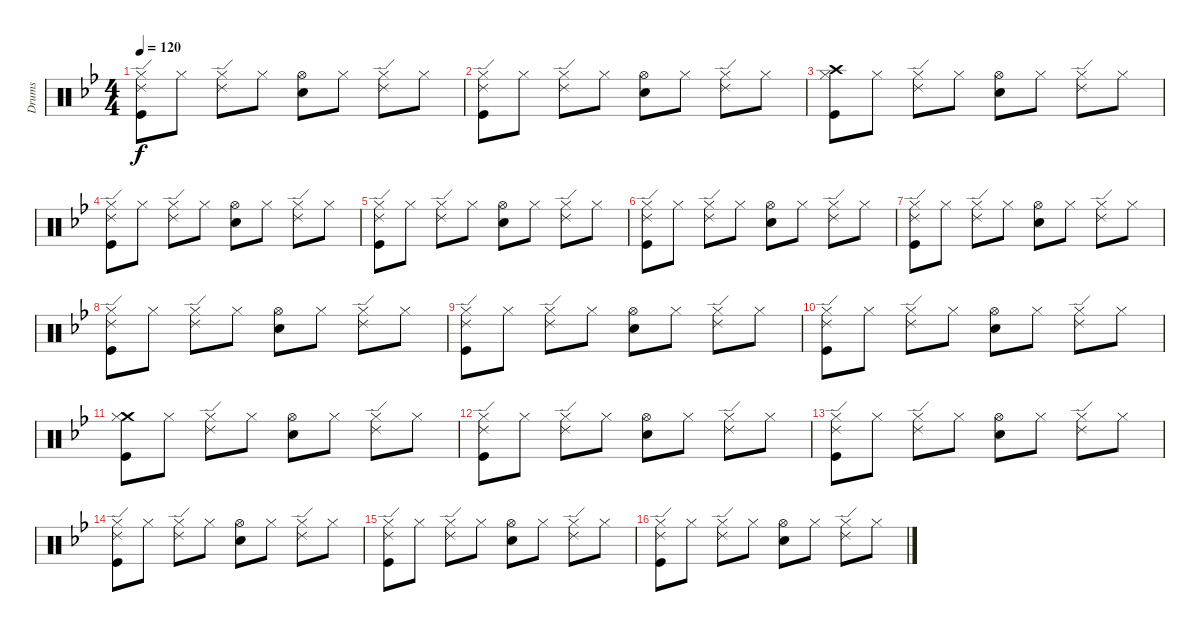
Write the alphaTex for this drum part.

\track ("Drums" "Drums") {instrument percussion}
\staff {score}
\articulation defaults
\ts (4 4)
\tempo 120
\clef neutral
\ks gminor
("Hi-Hat (closed)" "Ride (edge) 2" "Kick (hit)").8{dy f} "Hi-Hat (closed)".8 ("Hi-Hat (closed)" "Ride (edge) 2").8 "Hi-Hat (closed)".8 ("Hi-Hat (open)" "Electric Snare (hit)").8 "Hi-Hat (closed)".8 ("Hi-Hat (closed)" "Ride (edge) 2").8 "Hi-Hat (closed)".8 |
("Hi-Hat (closed)" "Ride (edge) 2" "Kick (hit)").8 "Hi-Hat (closed)".8 ("Hi-Hat (closed)" "Ride (edge) 2").8 "Hi-Hat (closed)".8 ("Hi-Hat (open)" "Electric Snare (hit)").8 "Hi-Hat (closed)".8 ("Hi-Hat (closed)" "Ride (edge) 2").8 "Hi-Hat (closed)".8 |
("Crash high (hit)" "Hi-Hat (closed)" "Kick (hit)").8 "Hi-Hat (closed)".8 ("Hi-Hat (closed)" "Ride (edge) 2").8 "Hi-Hat (closed)".8 ("Hi-Hat (open)" "Electric Snare (hit)").8 "Hi-Hat (closed)".8 ("Hi-Hat (closed)" "Ride (edge) 2").8 "Hi-Hat (closed)".8 |
("Hi-Hat (closed)" "Ride (edge) 2" "Kick (hit)").8 "Hi-Hat (closed)".8 ("Hi-Hat (closed)" "Ride (edge) 2").8 "Hi-Hat (closed)".8 ("Hi-Hat (open)" "Electric Snare (hit)").8 "Hi-Hat (closed)".8 ("Hi-Hat (closed)" "Ride (edge) 2").8 "Hi-Hat (closed)".8 |
("Hi-Hat (closed)" "Ride (edge) 2" "Kick (hit)").8 "Hi-Hat (closed)".8 ("Hi-Hat (closed)" "Ride (edge) 2").8 "Hi-Hat (closed)".8 ("Hi-Hat (open)" "Electric Snare (hit)").8 "Hi-Hat (closed)".8 ("Hi-Hat (closed)" "Ride (edge) 2").8 "Hi-Hat (closed)".8 |
("Hi-Hat (closed)" "Ride (edge) 2" "Kick (hit)").8 "Hi-Hat (closed)".8 ("Hi-Hat (closed)" "Ride (edge) 2").8 "Hi-Hat (closed)".8 ("Hi-Hat (open)" "Electric Snare (hit)").8 "Hi-Hat (closed)".8 ("Hi-Hat (closed)" "Ride (edge) 2").8 "Hi-Hat (closed)".8 |
("Hi-Hat (closed)" "Ride (edge) 2" "Kick (hit)").8 "Hi-Hat (closed)".8 ("Hi-Hat (closed)" "Ride (edge) 2").8 "Hi-Hat (closed)".8 ("Hi-Hat (open)" "Electric Snare (hit)").8 "Hi-Hat (closed)".8 ("Hi-Hat (closed)" "Ride (edge) 2").8 "Hi-Hat (closed)".8 |
("Hi-Hat (closed)" "Ride (edge) 2" "Kick (hit)").8 "Hi-Hat (closed)".8 ("Hi-Hat (closed)" "Ride (edge) 2").8 "Hi-Hat (closed)".8 ("Hi-Hat (open)" "Electric Snare (hit)").8 "Hi-Hat (closed)".8 ("Hi-Hat (closed)" "Ride (edge) 2").8 "Hi-Hat (closed)".8 |
("Hi-Hat (closed)" "Ride (edge) 2" "Kick (hit)").8 "Hi-Hat (closed)".8 ("Hi-Hat (closed)" "Ride (edge) 2").8 "Hi-Hat (closed)".8 ("Hi-Hat (open)" "Electric Snare (hit)").8 "Hi-Hat (closed)".8 ("Hi-Hat (closed)" "Ride (edge) 2").8 "Hi-Hat (closed)".8 |
("Hi-Hat (closed)" "Ride (edge) 2" "Kick (hit)").8 "Hi-Hat (closed)".8 ("Hi-Hat (closed)" "Ride (edge) 2").8 "Hi-Hat (closed)".8 ("Hi-Hat (open)" "Electric Snare (hit)").8 "Hi-Hat (closed)".8 ("Hi-Hat (closed)" "Ride (edge) 2").8 "Hi-Hat (closed)".8 |
("Crash medium (hit)" "Hi-Hat (closed)" "Kick (hit)").8 "Hi-Hat (closed)".8 ("Hi-Hat (closed)" "Ride (edge) 2").8 "Hi-Hat (closed)".8 ("Hi-Hat (open)" "Electric Snare (hit)").8 "Hi-Hat (closed)".8 ("Hi-Hat (closed)" "Ride (edge) 2").8 "Hi-Hat (closed)".8 |
("Hi-Hat (closed)" "Ride (edge) 2" "Kick (hit)").8 "Hi-Hat (closed)".8 ("Hi-Hat (closed)" "Ride (edge) 2").8 "Hi-Hat (closed)".8 ("Hi-Hat (open)" "Electric Snare (hit)").8 "Hi-Hat (closed)".8 ("Hi-Hat (closed)" "Ride (edge) 2").8 "Hi-Hat (closed)".8 |
("Hi-Hat (closed)" "Ride (edge) 2" "Kick (hit)").8 "Hi-Hat (closed)".8 ("Hi-Hat (closed)" "Ride (edge) 2").8 "Hi-Hat (closed)".8 ("Hi-Hat (open)" "Electric Snare (hit)").8 "Hi-Hat (closed)".8 ("Hi-Hat (closed)" "Ride (edge) 2").8 "Hi-Hat (closed)".8 |
("Hi-Hat (closed)" "Ride (edge) 2" "Kick (hit)").8 "Hi-Hat (closed)".8 ("Hi-Hat (closed)" "Ride (edge) 2").8 "Hi-Hat (closed)".8 ("Hi-Hat (open)" "Electric Snare (hit)").8 "Hi-Hat (closed)".8 ("Hi-Hat (closed)" "Ride (edge) 2").8 "Hi-Hat (closed)".8 |
("Hi-Hat (closed)" "Ride (edge) 2" "Kick (hit)").8 "Hi-Hat (closed)".8 ("Hi-Hat (closed)" "Ride (edge) 2").8 "Hi-Hat (closed)".8 ("Hi-Hat (open)" "Electric Snare (hit)").8 "Hi-Hat (closed)".8 ("Hi-Hat (closed)" "Ride (edge) 2").8 "Hi-Hat (closed)".8 |
("Hi-Hat (closed)" "Ride (edge) 2" "Kick (hit)").8 "Hi-Hat (closed)".8 ("Hi-Hat (closed)" "Ride (edge) 2").8 "Hi-Hat (closed)".8 ("Hi-Hat (open)" "Electric Snare (hit)").8 "Hi-Hat (closed)".8 ("Hi-Hat (closed)" "Ride (edge) 2").8 "Hi-Hat (closed)".8
